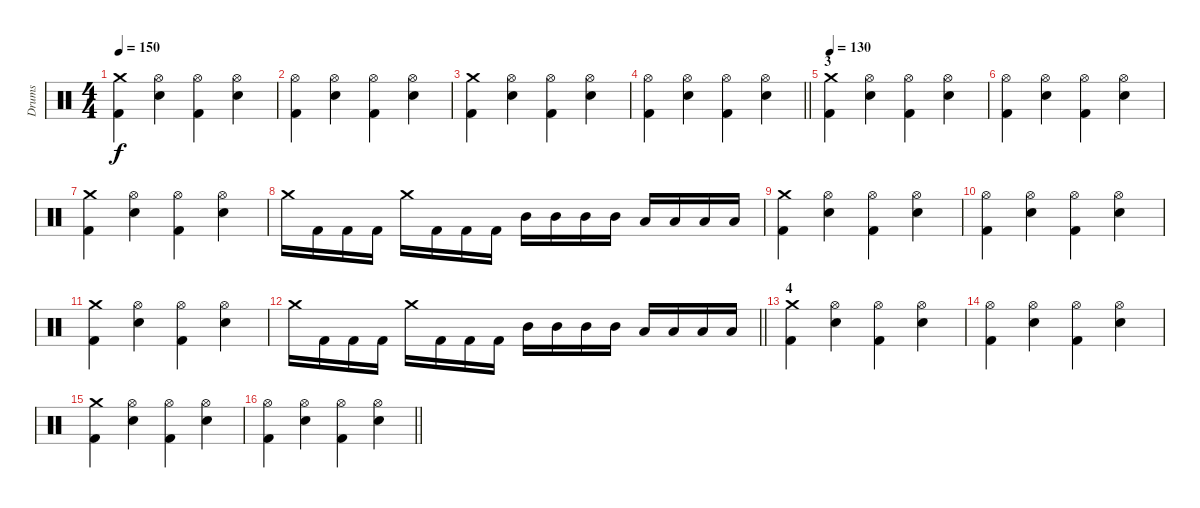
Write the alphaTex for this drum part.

\track ("Drums" "Drums") {instrument percussion}
\staff {score}
\articulation defaults
\ts (4 4)
\tempo 150
\clef neutral
\ks c
("Crash medium (hit)" "Kick (hit) 2").4{dy f} ("Hi-Hat (open)" "Snare (hit) 2").4 ("Hi-Hat (open)" "Kick (hit) 2").4 ("Hi-Hat (open)" "Snare (hit) 2").4 |
("Hi-Hat (open)" "Kick (hit) 2").4 ("Hi-Hat (open)" "Snare (hit) 2").4 ("Hi-Hat (open)" "Kick (hit) 2").4 ("Hi-Hat (open)" "Snare (hit) 2").4 |
("Crash medium (hit)" "Kick (hit) 2").4 ("Hi-Hat (open)" "Snare (hit) 2").4 ("Hi-Hat (open)" "Kick (hit) 2").4 ("Hi-Hat (open)" "Snare (hit) 2").4 |
\barLineRight lightlight
("Hi-Hat (open)" "Kick (hit) 2").4 ("Hi-Hat (open)" "Snare (hit) 2").4 ("Hi-Hat (open)" "Kick (hit) 2").4 ("Hi-Hat (open)" "Snare (hit) 2").4 |
\section ("" "3")
\tempo 130
("Crash medium (hit)" "Kick (hit) 2").4 ("Hi-Hat (open)" "Snare (hit) 2").4 ("Hi-Hat (open)" "Kick (hit) 2").4 ("Hi-Hat (open)" "Snare (hit) 2").4 |
("Hi-Hat (open)" "Kick (hit) 2").4 ("Hi-Hat (open)" "Snare (hit) 2").4 ("Hi-Hat (open)" "Kick (hit) 2").4 ("Hi-Hat (open)" "Snare (hit) 2").4 |
("Crash medium (hit)" "Kick (hit) 2").4 ("Hi-Hat (open)" "Snare (hit) 2").4 ("Hi-Hat (open)" "Kick (hit) 2").4 ("Hi-Hat (open)" "Snare (hit) 2").4 |
"Crash medium (hit)".16 "Kick (hit) 2".16 "Kick (hit) 2".16 "Kick (hit) 2".16 "Crash medium (hit)".16 "Kick (hit) 2".16 "Kick (hit) 2".16 "Kick (hit) 2".16 "Mid Tom (hit)".16 "Mid Tom (hit)".16 "Mid Tom (hit)".16 "Mid Tom (hit)".16 "Low Tom (hit)".16 "Low Tom (hit)".16 "Low Floor Tom (hit)".16 "Low Floor Tom (hit)".16 |
("Crash medium (hit)" "Kick (hit) 2").4 ("Hi-Hat (open)" "Snare (hit) 2").4 ("Hi-Hat (open)" "Kick (hit) 2").4 ("Hi-Hat (open)" "Snare (hit) 2").4 |
("Hi-Hat (open)" "Kick (hit) 2").4 ("Hi-Hat (open)" "Snare (hit) 2").4 ("Hi-Hat (open)" "Kick (hit) 2").4 ("Hi-Hat (open)" "Snare (hit) 2").4 |
("Crash medium (hit)" "Kick (hit) 2").4 ("Hi-Hat (open)" "Snare (hit) 2").4 ("Hi-Hat (open)" "Kick (hit) 2").4 ("Hi-Hat (open)" "Snare (hit) 2").4 |
\barLineRight lightlight "Crash medium (hit)".16 "Kick (hit) 2".16 "Kick (hit) 2".16 "Kick (hit) 2".16 "Crash medium (hit)".16 "Kick (hit) 2".16 "Kick (hit) 2".16 "Kick (hit) 2".16 "Mid Tom (hit)".16 "Mid Tom (hit)".16 "Mid Tom (hit)".16 "Mid Tom (hit)".16 "Low Tom (hit)".16 "Low Tom (hit)".16 "Low Floor Tom (hit)".16 "Low Floor Tom (hit)".16
|
\section ("" "4")
("Crash medium (hit)" "Kick (hit) 2").4 ("Hi-Hat (open)" "Snare (hit) 2").4 ("Hi-Hat (open)" "Kick (hit) 2").4 ("Hi-Hat (open)" "Snare (hit) 2").4 |
("Hi-Hat (open)" "Kick (hit) 2").4 ("Hi-Hat (open)" "Snare (hit) 2").4 ("Hi-Hat (open)" "Kick (hit) 2").4 ("Hi-Hat (open)" "Snare (hit) 2").4 |
("Crash medium (hit)" "Kick (hit) 2").4 ("Hi-Hat (open)" "Snare (hit) 2").4 ("Hi-Hat (open)" "Kick (hit) 2").4 ("Hi-Hat (open)" "Snare (hit) 2").4 |
\barLineRight lightlight
("Hi-Hat (open)" "Kick (hit) 2").4 ("Hi-Hat (open)" "Snare (hit) 2").4 ("Hi-Hat (open)" "Kick (hit) 2").4 ("Hi-Hat (open)" "Snare (hit) 2").4
